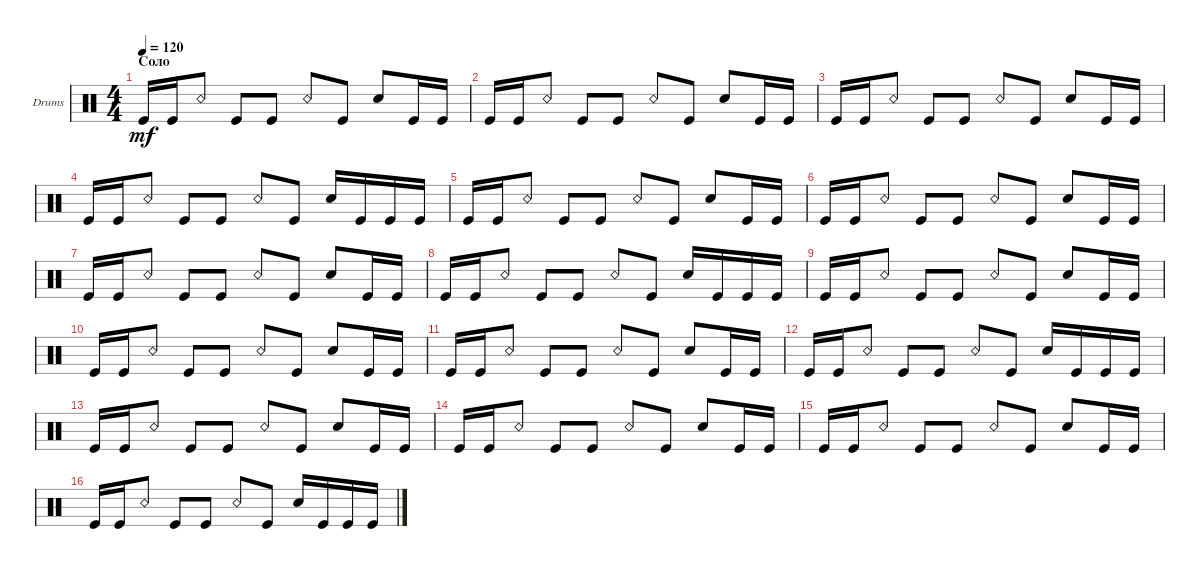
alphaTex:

\bracketExtendMode groupsimilarinstruments
\firstSystemTrackNameOrientation horizontal
\otherSystemsTrackNameOrientation horizontal
\track ("БАРАБАНЫ" "Drums") {instrument percussion}
\staff {score}
\articulation defaults
\ts (4 4)
\section ("" "Соло")
\tempo 120
\clef neutral
\ks c "Kick (hit)".16{dy mf} "Kick (hit)".16 "Snare (rim shot)".8 "Kick (hit)".8 "Kick (hit)".8 "Snare (rim shot)".8 "Kick (hit)".8 "Snare (hit) 2".8 "Kick (hit)".16 "Kick (hit)".16
|
"Kick (hit)".16 "Kick (hit)".16 "Snare (rim shot)".8 "Kick (hit)".8 "Kick (hit)".8 "Snare (rim shot)".8 "Kick (hit)".8 "Snare (hit) 2".8 "Kick (hit)".16 "Kick (hit)".16 |
"Kick (hit)".16 "Kick (hit)".16 "Snare (rim shot)".8 "Kick (hit)".8 "Kick (hit)".8 "Snare (rim shot)".8 "Kick (hit)".8 "Snare (hit) 2".8 "Kick (hit)".16 "Kick (hit)".16 |
"Kick (hit)".16 "Kick (hit)".16 "Snare (rim shot)".8 "Kick (hit)".8 "Kick (hit)".8 "Snare (rim shot)".8 "Kick (hit)".8 "Snare (hit) 2".16 "Kick (hit)".16 "Kick (hit)".16 "Kick (hit)".16 |
"Kick (hit)".16 "Kick (hit)".16 "Snare (rim shot)".8 "Kick (hit)".8 "Kick (hit)".8 "Snare (rim shot)".8 "Kick (hit)".8 "Snare (hit) 2".8 "Kick (hit)".16 "Kick (hit)".16 |
"Kick (hit)".16 "Kick (hit)".16 "Snare (rim shot)".8 "Kick (hit)".8 "Kick (hit)".8 "Snare (rim shot)".8 "Kick (hit)".8 "Snare (hit) 2".8 "Kick (hit)".16 "Kick (hit)".16 |
"Kick (hit)".16 "Kick (hit)".16 "Snare (rim shot)".8 "Kick (hit)".8 "Kick (hit)".8 "Snare (rim shot)".8 "Kick (hit)".8 "Snare (hit) 2".8 "Kick (hit)".16 "Kick (hit)".16 |
"Kick (hit)".16 "Kick (hit)".16 "Snare (rim shot)".8 "Kick (hit)".8 "Kick (hit)".8 "Snare (rim shot)".8 "Kick (hit)".8 "Snare (hit) 2".16 "Kick (hit)".16 "Kick (hit)".16 "Kick (hit)".16 |
"Kick (hit)".16 "Kick (hit)".16 "Snare (rim shot)".8 "Kick (hit)".8 "Kick (hit)".8 "Snare (rim shot)".8 "Kick (hit)".8 "Snare (hit) 2".8 "Kick (hit)".16 "Kick (hit)".16 |
"Kick (hit)".16 "Kick (hit)".16 "Snare (rim shot)".8 "Kick (hit)".8 "Kick (hit)".8 "Snare (rim shot)".8 "Kick (hit)".8 "Snare (hit) 2".8 "Kick (hit)".16 "Kick (hit)".16 |
"Kick (hit)".16 "Kick (hit)".16 "Snare (rim shot)".8 "Kick (hit)".8 "Kick (hit)".8 "Snare (rim shot)".8 "Kick (hit)".8 "Snare (hit) 2".8 "Kick (hit)".16 "Kick (hit)".16 |
"Kick (hit)".16 "Kick (hit)".16 "Snare (rim shot)".8 "Kick (hit)".8 "Kick (hit)".8 "Snare (rim shot)".8 "Kick (hit)".8 "Snare (hit) 2".16 "Kick (hit)".16 "Kick (hit)".16 "Kick (hit)".16 |
"Kick (hit)".16 "Kick (hit)".16 "Snare (rim shot)".8 "Kick (hit)".8 "Kick (hit)".8 "Snare (rim shot)".8 "Kick (hit)".8 "Snare (hit) 2".8 "Kick (hit)".16 "Kick (hit)".16 |
"Kick (hit)".16 "Kick (hit)".16 "Snare (rim shot)".8 "Kick (hit)".8 "Kick (hit)".8 "Snare (rim shot)".8 "Kick (hit)".8 "Snare (hit) 2".8 "Kick (hit)".16 "Kick (hit)".16 |
"Kick (hit)".16 "Kick (hit)".16 "Snare (rim shot)".8 "Kick (hit)".8 "Kick (hit)".8 "Snare (rim shot)".8 "Kick (hit)".8 "Snare (hit) 2".8 "Kick (hit)".16 "Kick (hit)".16 |
"Kick (hit)".16 "Kick (hit)".16 "Snare (rim shot)".8 "Kick (hit)".8 "Kick (hit)".8 "Snare (rim shot)".8 "Kick (hit)".8 "Snare (hit) 2".16 "Kick (hit)".16 "Kick (hit)".16 "Kick (hit)".16
